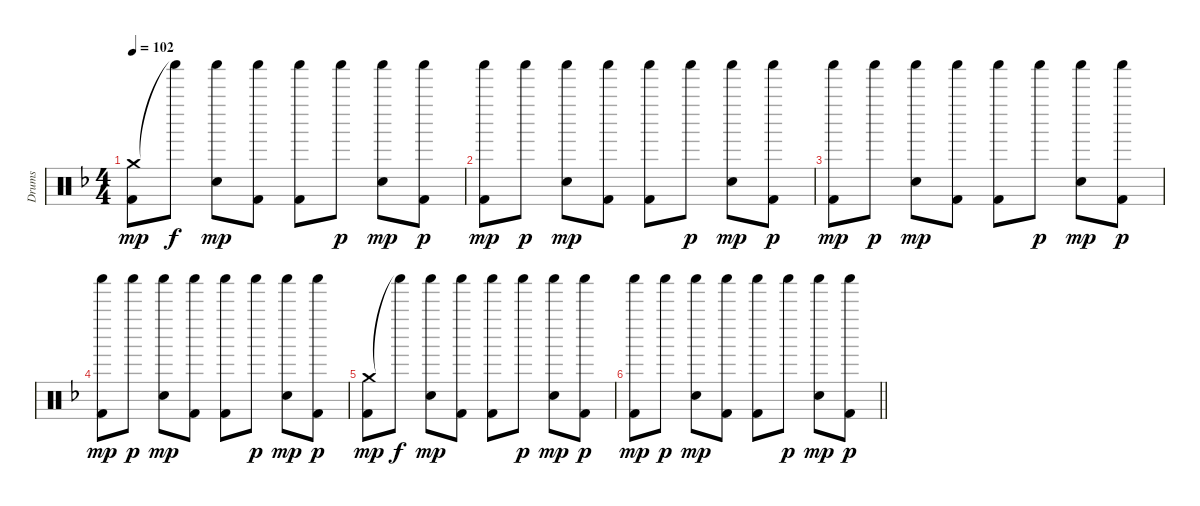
\track ("Drums" "Drums") {instrument percussion}
\staff {score}
\articulation defaults
\ts (4 4)
\tempo 102
\clef neutral
\ks dminor
("Crash medium (hit)" "Kick (hit) 2").8{dy mp} "Shaker (hit)"{t}.8{dy f} ("Shaker (hit)" "Snare (hit) 2").8{dy mp} ("Shaker (hit)" "Kick (hit) 2").8 ("Shaker (hit)" "Kick (hit) 2").8 "Shaker (hit)".8{dy p} ("Shaker (hit)" "Snare (hit) 2").8{dy mp} ("Shaker (hit)" "Kick (hit) 2").8{dy p} |
("Shaker (hit)" "Kick (hit) 2").8{dy mp} "Shaker (hit)".8{dy p} ("Shaker (hit)" "Snare (hit) 2").8{dy mp} ("Shaker (hit)" "Kick (hit) 2").8 ("Shaker (hit)" "Kick (hit) 2").8 "Shaker (hit)".8{dy p} ("Shaker (hit)" "Snare (hit) 2").8{dy mp} ("Shaker (hit)" "Kick (hit) 2").8{dy p} |
("Shaker (hit)" "Kick (hit) 2").8{dy mp} "Shaker (hit)".8{dy p} ("Shaker (hit)" "Snare (hit) 2").8{dy mp} ("Shaker (hit)" "Kick (hit) 2").8 ("Shaker (hit)" "Kick (hit) 2").8 "Shaker (hit)".8{dy p} ("Shaker (hit)" "Snare (hit) 2").8{dy mp} ("Shaker (hit)" "Kick (hit) 2").8{dy p} |
("Shaker (hit)" "Kick (hit) 2").8{dy mp} "Shaker (hit)".8{dy p} ("Shaker (hit)" "Snare (hit) 2").8{dy mp} ("Shaker (hit)" "Kick (hit) 2").8 ("Shaker (hit)" "Kick (hit) 2").8 "Shaker (hit)".8{dy p} ("Shaker (hit)" "Snare (hit) 2").8{dy mp} ("Shaker (hit)" "Kick (hit) 2").8{dy p} |
("Crash medium (hit)" "Kick (hit) 2").8{dy mp} "Shaker (hit)"{t}.8{dy f} ("Shaker (hit)" "Snare (hit) 2").8{dy mp} ("Shaker (hit)" "Kick (hit) 2").8 ("Shaker (hit)" "Kick (hit) 2").8 "Shaker (hit)".8{dy p} ("Shaker (hit)" "Snare (hit) 2").8{dy mp} ("Shaker (hit)" "Kick (hit) 2").8{dy p} |
\barLineRight lightlight
("Shaker (hit)" "Kick (hit) 2").8{dy mp} "Shaker (hit)".8{dy p} ("Shaker (hit)" "Snare (hit) 2").8{dy mp} ("Shaker (hit)" "Kick (hit) 2").8 ("Shaker (hit)" "Kick (hit) 2").8 "Shaker (hit)".8{dy p} ("Shaker (hit)" "Snare (hit) 2").8{dy mp} ("Shaker (hit)" "Kick (hit) 2").8{dy p}
